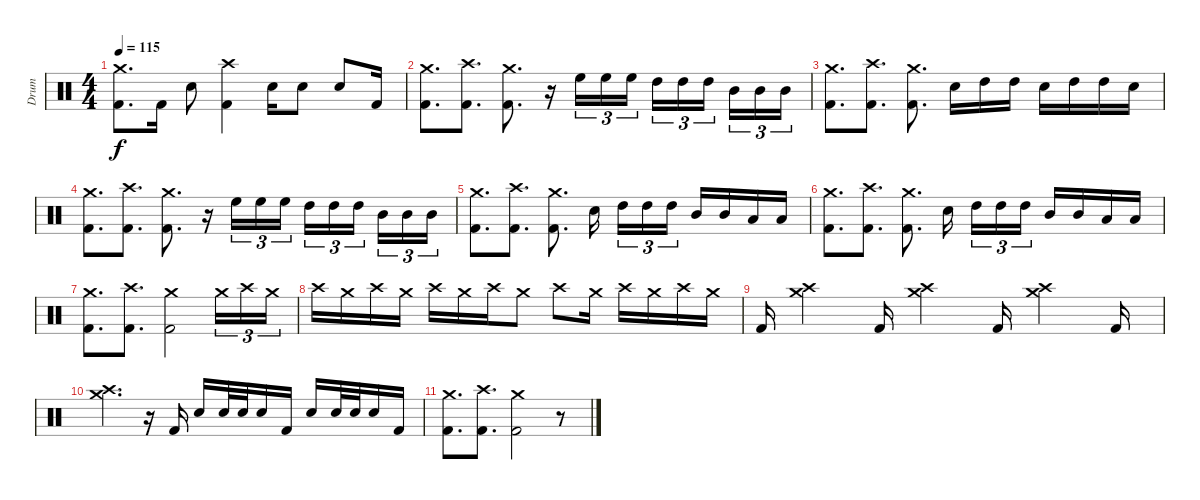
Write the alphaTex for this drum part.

\track ("Drum" "Drum") {instrument percussion}
\staff {score}
\articulation defaults
\ts (4 4)
\tempo 115
\clef neutral
\ks c
("Crash medium (hit)" "Kick (hit) 2").8{d dy f} "Kick (hit) 2".16 "Snare (hit) 2".8 ("Crash high (hit)" "Kick (hit) 2").4 "Electric Snare (hit)".16 "Electric Snare (hit)".8 "Electric Snare (hit)".8 "Kick (hit) 2".16 |
("Crash medium (hit)" "Kick (hit) 2").8{d} ("Crash high (hit)" "Kick (hit) 2").8{d} ("Crash medium (hit)" "Kick (hit) 2").8{d} r.16 "High Floor Tom (hit)".16{tu (3 2)} "High Floor Tom (hit)".16{tu (3 2)} "High Floor Tom (hit)".16{tu (3 2)} "High Tom (hit)".16{tu (3 2)} "High Tom (hit)".16{tu (3 2)} "High Tom (hit)".16{tu (3 2)} "Mid Tom (hit)".16{tu (3 2)} "Mid Tom (hit)".16{tu (3 2)} "Mid Tom (hit)".16{tu (3 2)} |
("Crash medium (hit)" "Kick (hit) 2").8{d} ("Crash high (hit)" "Kick (hit) 2").8{d} ("Crash medium (hit)" "Kick (hit) 2").8{d} "Electric Snare (hit)".16 "High Tom (hit)".16 "High Tom (hit)".16 "Electric Snare (hit)".16 "High Tom (hit)".16 "High Tom (hit)".16 "Electric Snare (hit)".16 |
("Crash medium (hit)" "Kick (hit) 2").8{d} ("Crash high (hit)" "Kick (hit) 2").8{d} ("Crash medium (hit)" "Kick (hit) 2").8{d} r.16 "High Floor Tom (hit)".16{tu (3 2)} "High Floor Tom (hit)".16{tu (3 2)} "High Floor Tom (hit)".16{tu (3 2)} "High Tom (hit)".16{tu (3 2)} "High Tom (hit)".16{tu (3 2)} "High Tom (hit)".16{tu (3 2)} "Mid Tom (hit)".16{tu (3 2)} "Mid Tom (hit)".16{tu (3 2)} "Mid Tom (hit)".16{tu (3 2)} |
("Crash medium (hit)" "Kick (hit) 2").8{d} ("Crash high (hit)" "Kick (hit) 2").8{d} ("Crash medium (hit)" "Kick (hit) 2").8{d} "Electric Snare (hit)".16 "High Tom (hit)".16{tu (3 2)} "High Tom (hit)".16{tu (3 2)} "High Tom (hit)".16{tu (3 2)} "Mid Tom (hit)".16 "Mid Tom (hit)".16 "Low Tom (hit)".16 "Low Tom (hit)".16 |
("Crash medium (hit)" "Kick (hit) 2").8{d} ("Crash high (hit)" "Kick (hit) 2").8{d} ("Crash medium (hit)" "Kick (hit) 2").8{d} "Electric Snare (hit)".16 "High Tom (hit)".16{tu (3 2)} "High Tom (hit)".16{tu (3 2)} "High Tom (hit)".16{tu (3 2)} "Mid Tom (hit)".16 "Mid Tom (hit)".16 "Low Tom (hit)".16 "Low Tom (hit)".16 |
("Crash medium (hit)" "Kick (hit) 2").8{d} ("Crash high (hit)" "Kick (hit) 2").8{d} ("Crash medium (hit)" "Kick (hit) 2").2 "Crash medium (hit)".16{tu (3 2)} "Crash high (hit)".16{tu (3 2)} "Crash medium (hit)".16{tu (3 2)} |
"Crash high (hit)".16 "Crash medium (hit)".16 "Crash high (hit)".16 "Crash medium (hit)".16 "Crash high (hit)".16 "Crash medium (hit)".16 "Crash high (hit)".16 "Crash medium (hit)".8 "Crash high (hit)".8 "Crash medium (hit)".16 "Crash high (hit)".16 "Crash medium (hit)".16 "Crash high (hit)".16 "Crash medium (hit)".16 |
"Kick (hit) 2".16 ("Crash medium (hit)" "Crash high (hit)").4 "Kick (hit) 2".16 ("Crash medium (hit)" "Crash high (hit)").4 "Kick (hit) 2".16 ("Crash medium (hit)" "Crash high (hit)").4 "Kick (hit) 2".16 |
("Crash medium (hit)" "Crash high (hit)").4{d} r.16 "Kick (hit) 2".16 "Electric Snare (hit)".16 "Electric Snare (hit)".32 "Electric Snare (hit)".32 "Electric Snare (hit)".16 "Kick (hit) 2".16 "Electric Snare (hit)".16 "Electric Snare (hit)".32 "Electric Snare (hit)".32 "Electric Snare (hit)".16 "Kick (hit) 2".16 |
("Crash medium (hit)" "Kick (hit) 2").8{d} ("Crash high (hit)" "Kick (hit) 2").8{d} ("Crash medium (hit)" "Kick (hit) 2").2 r.8
